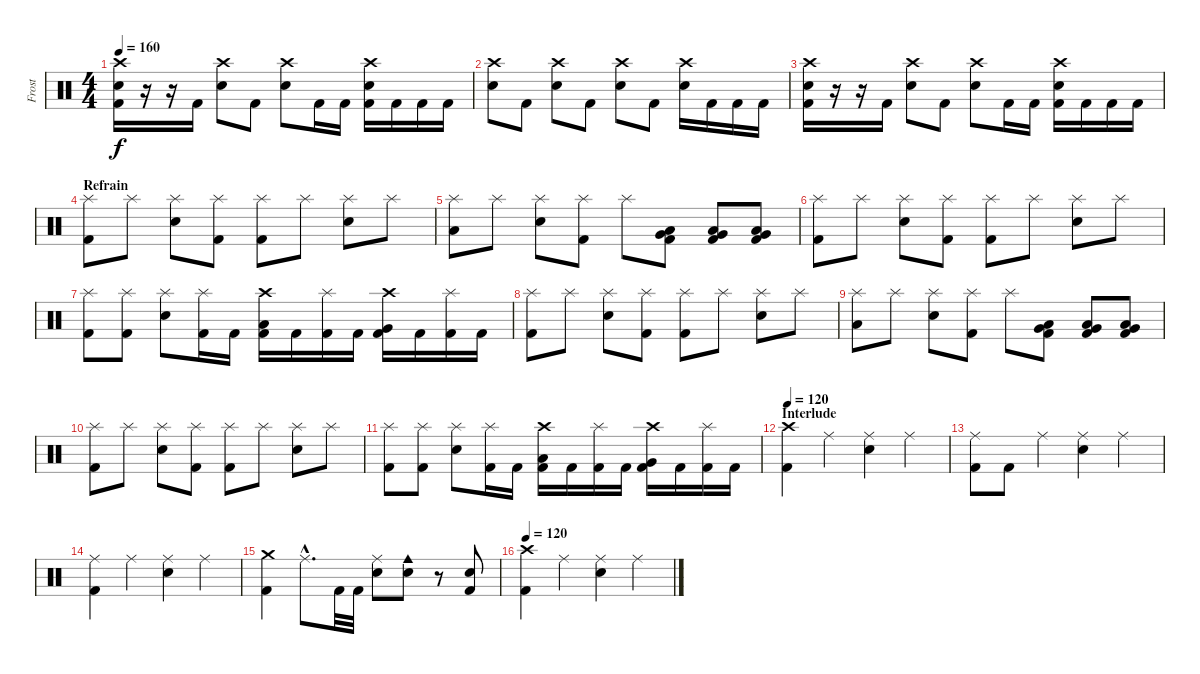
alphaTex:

\track ("Frost" "Frost") {instrument percussion}
\staff {score}
\articulation defaults
\ts (4 4)
\tempo 160
\clef neutral
\ks c
("Crash high (hit)" "Snare (hit) 2" "Kick (hit) 2").16{dy f} r.16 r.16 "Kick (hit) 2".16 ("Crash high (hit)" "Snare (hit) 2").8 "Kick (hit) 2".8 ("Crash high (hit)" "Snare (hit) 2").8 "Kick (hit) 2".16 "Kick (hit) 2".16 ("Crash high (hit)" "Snare (hit) 2" "Kick (hit) 2").16 "Kick (hit) 2".16 "Kick (hit) 2".16 "Kick (hit) 2".16 |
("Crash high (hit)" "Snare (hit) 2").8 "Kick (hit) 2".8 ("Crash high (hit)" "Snare (hit) 2").8 "Kick (hit) 2".8 ("Crash high (hit)" "Snare (hit) 2").8 "Kick (hit) 2".8 ("Crash high (hit)" "Snare (hit) 2").16 "Kick (hit) 2".16 "Kick (hit) 2".16 "Kick (hit) 2".16 |
("Crash high (hit)" "Snare (hit) 2" "Kick (hit) 2").16 r.16 r.16 "Kick (hit) 2".16 ("Crash high (hit)" "Snare (hit) 2").8 "Kick (hit) 2".8 ("Crash high (hit)" "Snare (hit) 2").8 "Kick (hit) 2".16 "Kick (hit) 2".16 ("Crash high (hit)" "Snare (hit) 2" "Kick (hit) 2").16 "Kick (hit) 2".16 "Kick (hit) 2".16 "Kick (hit) 2".16 |
\section ("" "Refrain")
("Splash (hit)" "Kick (hit) 2").8 "Splash (hit)".8 ("Splash (hit)" "Snare (hit) 2").8 ("Splash (hit)" "Kick (hit) 2").8 ("Splash (hit)" "Kick (hit) 2").8 "Splash (hit)".8 ("Splash (hit)" "Snare (hit) 2").8 "Splash (hit)".8 |
("Splash (hit)" "Low Floor Tom (hit)").8 "Splash (hit)".8 ("Splash (hit)" "Snare (hit) 2").8 ("Splash (hit)" "Kick (hit) 2").8 "Splash (hit)".8 ("Very Low Tom (hit)" "Low Floor Tom (hit)" "Kick (hit) 2").8 ("Very Low Tom (hit)" "Low Floor Tom (hit)" "Kick (hit) 2").8 ("Very Low Tom (hit)" "Low Floor Tom (hit)" "Kick (hit) 2").8 |
("Splash (hit)" "Kick (hit) 2").8 "Splash (hit)".8 ("Splash (hit)" "Snare (hit) 2").8 ("Splash (hit)" "Kick (hit) 2").8 ("Splash (hit)" "Kick (hit) 2").8 "Splash (hit)".8 ("Splash (hit)" "Snare (hit) 2").8 "Splash (hit)".8 |
("Splash (hit)" "Kick (hit) 2").8 ("Splash (hit)" "Kick (hit) 2").8 ("Splash (hit)" "Snare (hit) 2").8 ("Splash (hit)" "Kick (hit) 2").16 "Kick (hit) 2".16 ("Crash high (hit)" "Low Tom (hit)" "Kick (hit) 2").16 "Kick (hit) 2".16 ("Splash (hit)" "Kick (hit) 2").16 "Kick (hit) 2".16 ("Crash high (hit)" "Very Low Tom (hit)" "Kick (hit) 2").16 "Kick (hit) 2".16 ("Splash (hit)" "Kick (hit) 2").16 "Kick (hit) 2".16 |
("Splash (hit)" "Kick (hit) 2").8 "Splash (hit)".8 ("Splash (hit)" "Snare (hit) 2").8 ("Splash (hit)" "Kick (hit) 2").8 ("Splash (hit)" "Kick (hit) 2").8 "Splash (hit)".8 ("Splash (hit)" "Snare (hit) 2").8 "Splash (hit)".8 |
("Splash (hit)" "Low Floor Tom (hit)").8 "Splash (hit)".8 ("Splash (hit)" "Snare (hit) 2").8 ("Splash (hit)" "Kick (hit) 2").8 "Splash (hit)".8 ("Very Low Tom (hit)" "Low Floor Tom (hit)" "Kick (hit) 2").8 ("Very Low Tom (hit)" "Low Floor Tom (hit)" "Kick (hit) 2").8 ("Very Low Tom (hit)" "Low Floor Tom (hit)" "Kick (hit) 2").8 |
("Splash (hit)" "Kick (hit) 2").8 "Splash (hit)".8 ("Splash (hit)" "Snare (hit) 2").8 ("Splash (hit)" "Kick (hit) 2").8 ("Splash (hit)" "Kick (hit) 2").8 "Splash (hit)".8 ("Splash (hit)" "Snare (hit) 2").8 "Splash (hit)".8 |
("Splash (hit)" "Kick (hit) 2").8 ("Splash (hit)" "Kick (hit) 2").8 ("Splash (hit)" "Snare (hit) 2").8 ("Splash (hit)" "Kick (hit) 2").16 "Kick (hit) 2".16 ("Crash high (hit)" "Low Tom (hit)" "Kick (hit) 2").16 "Kick (hit) 2".16 ("Splash (hit)" "Kick (hit) 2").16 "Kick (hit) 2".16 ("Crash high (hit)" "Very Low Tom (hit)" "Kick (hit) 2").16 "Kick (hit) 2".16 ("Splash (hit)" "Kick (hit) 2").16 "Kick (hit) 2".16 |
\section ("" "Interlude")
\tempo 120
("Crash high (hit)" "Kick (hit) 2").4 "Ride (middle)".4 ("Ride (middle)" "Snare (hit) 2").4 "Ride (middle)".4 |
("Ride (middle)" "Kick (hit) 2").8 "Kick (hit) 2".8 "Ride (middle)".4 ("Ride (middle)" "Snare (hit) 2").4 "Ride (middle)".4 |
("Ride (middle)" "Kick (hit) 2").4 "Ride (middle)".4 ("Ride (middle)" "Snare (hit) 2").4 "Ride (middle)".4 |
("Crash medium (hit)" "Kick (hit) 2").4 "Ride (middle)"{hac}.8{d} "Kick (hit) 2".32 "Kick (hit) 2".32 ("Ride (middle)" "Snare (hit) 2").8 ("Cowbell medium (hit)" "Snare (hit) 2").8 r.8 ("Snare (hit) 2" "Kick (hit) 2").8 |
\tempo 120
("Crash high (hit)" "Kick (hit) 2").4 "Ride (middle)".4 ("Ride (middle)" "Snare (hit) 2").4 "Ride (middle)".4
